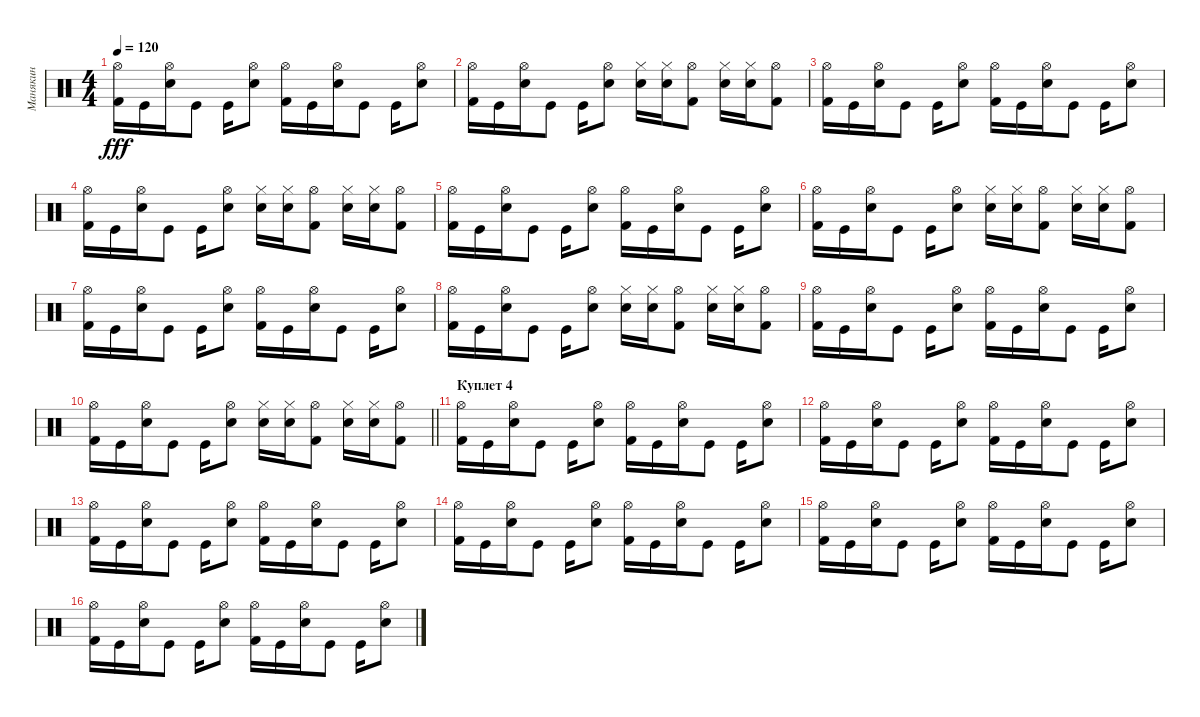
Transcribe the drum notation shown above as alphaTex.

\track ("Манякин" "Манякин") {instrument percussion}
\staff {score}
\articulation defaults
\ts (4 4)
\tempo 120
\clef neutral
\ks c
("Hi-Hat (open)" "Kick (hit) 2").16{dy fff} "Kick (hit)".16 ("Hi-Hat (open)" "Snare (hit) 2").16 "Kick (hit)".8 "Kick (hit)".16 ("Hi-Hat (open)" "Snare (hit) 2").8 ("Kick (hit) 2" "Hi-Hat (open)").16 "Kick (hit)".16 ("Hi-Hat (open)" "Snare (hit) 2").16 "Kick (hit)".8 "Kick (hit)".16 ("Hi-Hat (open)" "Snare (hit) 2").8 |
("Hi-Hat (open)" "Kick (hit) 2").16 "Kick (hit)".16 ("Hi-Hat (open)" "Snare (hit) 2").16 "Kick (hit)".8 "Kick (hit)".16 ("Hi-Hat (open)" "Snare (hit) 2").8 ("Hi-Hat (closed)" "Snare (hit) 2").16 ("Hi-Hat (closed)" "Snare (hit) 2").16 ("Hi-Hat (open)" "Kick (hit) 2").8 ("Hi-Hat (closed)" "Snare (hit) 2").16 ("Hi-Hat (closed)" "Snare (hit) 2").16 ("Hi-Hat (open)" "Kick (hit) 2").8 |
("Hi-Hat (open)" "Kick (hit) 2").16 "Kick (hit)".16 ("Hi-Hat (open)" "Snare (hit) 2").16 "Kick (hit)".8 "Kick (hit)".16 ("Hi-Hat (open)" "Snare (hit) 2").8 ("Kick (hit) 2" "Hi-Hat (open)").16 "Kick (hit)".16 ("Hi-Hat (open)" "Snare (hit) 2").16 "Kick (hit)".8 "Kick (hit)".16 ("Hi-Hat (open)" "Snare (hit) 2").8 |
("Hi-Hat (open)" "Kick (hit) 2").16 "Kick (hit)".16 ("Hi-Hat (open)" "Snare (hit) 2").16 "Kick (hit)".8 "Kick (hit)".16 ("Hi-Hat (open)" "Snare (hit) 2").8 ("Hi-Hat (closed)" "Snare (hit) 2").16 ("Hi-Hat (closed)" "Snare (hit) 2").16 ("Hi-Hat (open)" "Kick (hit) 2").8 ("Hi-Hat (closed)" "Snare (hit) 2").16 ("Hi-Hat (closed)" "Snare (hit) 2").16 ("Hi-Hat (open)" "Kick (hit) 2").8 |
("Hi-Hat (open)" "Kick (hit) 2").16 "Kick (hit)".16 ("Hi-Hat (open)" "Snare (hit) 2").16 "Kick (hit)".8 "Kick (hit)".16 ("Hi-Hat (open)" "Snare (hit) 2").8 ("Kick (hit) 2" "Hi-Hat (open)").16 "Kick (hit)".16 ("Hi-Hat (open)" "Snare (hit) 2").16 "Kick (hit)".8 "Kick (hit)".16 ("Hi-Hat (open)" "Snare (hit) 2").8 |
("Hi-Hat (open)" "Kick (hit) 2").16 "Kick (hit)".16 ("Hi-Hat (open)" "Snare (hit) 2").16 "Kick (hit)".8 "Kick (hit)".16 ("Hi-Hat (open)" "Snare (hit) 2").8 ("Hi-Hat (closed)" "Snare (hit) 2").16 ("Hi-Hat (closed)" "Snare (hit) 2").16 ("Hi-Hat (open)" "Kick (hit) 2").8 ("Hi-Hat (closed)" "Snare (hit) 2").16 ("Hi-Hat (closed)" "Snare (hit) 2").16 ("Hi-Hat (open)" "Kick (hit) 2").8 |
("Hi-Hat (open)" "Kick (hit) 2").16 "Kick (hit)".16 ("Hi-Hat (open)" "Snare (hit) 2").16 "Kick (hit)".8 "Kick (hit)".16 ("Hi-Hat (open)" "Snare (hit) 2").8 ("Kick (hit) 2" "Hi-Hat (open)").16 "Kick (hit)".16 ("Hi-Hat (open)" "Snare (hit) 2").16 "Kick (hit)".8 "Kick (hit)".16 ("Hi-Hat (open)" "Snare (hit) 2").8 |
("Hi-Hat (open)" "Kick (hit) 2").16 "Kick (hit)".16 ("Hi-Hat (open)" "Snare (hit) 2").16 "Kick (hit)".8 "Kick (hit)".16 ("Hi-Hat (open)" "Snare (hit) 2").8 ("Hi-Hat (closed)" "Snare (hit) 2").16 ("Hi-Hat (closed)" "Snare (hit) 2").16 ("Hi-Hat (open)" "Kick (hit) 2").8 ("Hi-Hat (closed)" "Snare (hit) 2").16 ("Hi-Hat (closed)" "Snare (hit) 2").16 ("Hi-Hat (open)" "Kick (hit) 2").8 |
("Hi-Hat (open)" "Kick (hit) 2").16 "Kick (hit)".16 ("Hi-Hat (open)" "Snare (hit) 2").16 "Kick (hit)".8 "Kick (hit)".16 ("Hi-Hat (open)" "Snare (hit) 2").8 ("Kick (hit) 2" "Hi-Hat (open)").16 "Kick (hit)".16 ("Hi-Hat (open)" "Snare (hit) 2").16 "Kick (hit)".8 "Kick (hit)".16 ("Hi-Hat (open)" "Snare (hit) 2").8 |
\barLineRight lightlight
("Hi-Hat (open)" "Kick (hit) 2").16 "Kick (hit)".16 ("Hi-Hat (open)" "Snare (hit) 2").16 "Kick (hit)".8 "Kick (hit)".16 ("Hi-Hat (open)" "Snare (hit) 2").8 ("Hi-Hat (closed)" "Snare (hit) 2").16 ("Hi-Hat (closed)" "Snare (hit) 2").16 ("Hi-Hat (open)" "Kick (hit) 2").8 ("Hi-Hat (closed)" "Snare (hit) 2").16 ("Hi-Hat (closed)" "Snare (hit) 2").16 ("Hi-Hat (open)" "Kick (hit) 2").8 |
\section ("" "Куплет 4")
("Hi-Hat (open)" "Kick (hit) 2").16 "Kick (hit)".16 ("Hi-Hat (open)" "Snare (hit) 2").16 "Kick (hit)".8 "Kick (hit)".16 ("Hi-Hat (open)" "Snare (hit) 2").8 ("Kick (hit) 2" "Hi-Hat (open)").16 "Kick (hit)".16 ("Hi-Hat (open)" "Snare (hit) 2").16 "Kick (hit)".8 "Kick (hit)".16 ("Hi-Hat (open)" "Snare (hit) 2").8 |
("Hi-Hat (open)" "Kick (hit) 2").16 "Kick (hit)".16 ("Hi-Hat (open)" "Snare (hit) 2").16 "Kick (hit)".8 "Kick (hit)".16 ("Hi-Hat (open)" "Snare (hit) 2").8 ("Kick (hit) 2" "Hi-Hat (open)").16 "Kick (hit)".16 ("Hi-Hat (open)" "Snare (hit) 2").16 "Kick (hit)".8 "Kick (hit)".16 ("Hi-Hat (open)" "Snare (hit) 2").8 |
("Hi-Hat (open)" "Kick (hit) 2").16 "Kick (hit)".16 ("Hi-Hat (open)" "Snare (hit) 2").16 "Kick (hit)".8 "Kick (hit)".16 ("Hi-Hat (open)" "Snare (hit) 2").8 ("Kick (hit) 2" "Hi-Hat (open)").16 "Kick (hit)".16 ("Hi-Hat (open)" "Snare (hit) 2").16 "Kick (hit)".8 "Kick (hit)".16 ("Hi-Hat (open)" "Snare (hit) 2").8 |
("Hi-Hat (open)" "Kick (hit) 2").16 "Kick (hit)".16 ("Hi-Hat (open)" "Snare (hit) 2").16 "Kick (hit)".8 "Kick (hit)".16 ("Hi-Hat (open)" "Snare (hit) 2").8 ("Kick (hit) 2" "Hi-Hat (open)").16 "Kick (hit)".16 ("Hi-Hat (open)" "Snare (hit) 2").16 "Kick (hit)".8 "Kick (hit)".16 ("Hi-Hat (open)" "Snare (hit) 2").8 |
("Hi-Hat (open)" "Kick (hit) 2").16 "Kick (hit)".16 ("Hi-Hat (open)" "Snare (hit) 2").16 "Kick (hit)".8 "Kick (hit)".16 ("Hi-Hat (open)" "Snare (hit) 2").8 ("Kick (hit) 2" "Hi-Hat (open)").16 "Kick (hit)".16 ("Hi-Hat (open)" "Snare (hit) 2").16 "Kick (hit)".8 "Kick (hit)".16 ("Hi-Hat (open)" "Snare (hit) 2").8 |
("Hi-Hat (open)" "Kick (hit) 2").16 "Kick (hit)".16 ("Hi-Hat (open)" "Snare (hit) 2").16 "Kick (hit)".8 "Kick (hit)".16 ("Hi-Hat (open)" "Snare (hit) 2").8 ("Kick (hit) 2" "Hi-Hat (open)").16 "Kick (hit)".16 ("Hi-Hat (open)" "Snare (hit) 2").16 "Kick (hit)".8 "Kick (hit)".16 ("Hi-Hat (open)" "Snare (hit) 2").8
